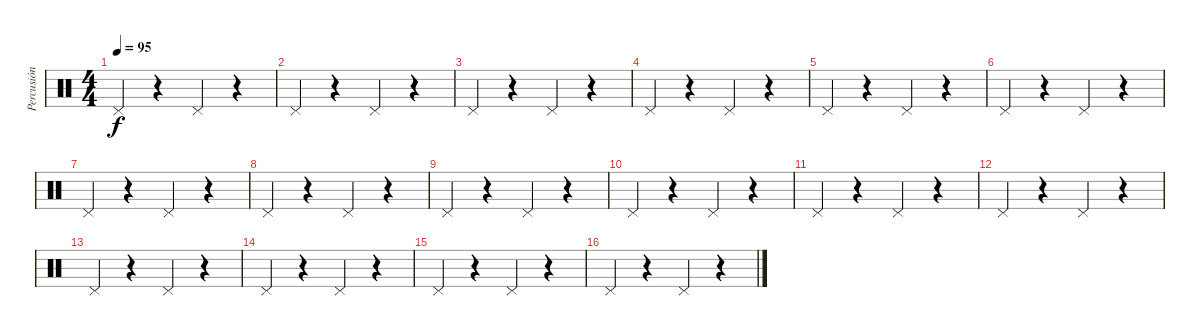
\track ("Percusión" "Percusión") {instrument percussion}
\staff {score}
\articulation defaults
\ts (4 4)
\tempo 95
\clef neutral
\ks c "Pedal Hi-Hat (hit)".4{dy f}
r.4 "Pedal Hi-Hat (hit)".4 r.4 |
"Pedal Hi-Hat (hit)".4 r.4 "Pedal Hi-Hat (hit)".4 r.4 |
"Pedal Hi-Hat (hit)".4 r.4 "Pedal Hi-Hat (hit)".4 r.4 |
"Pedal Hi-Hat (hit)".4 r.4 "Pedal Hi-Hat (hit)".4 r.4 |
"Pedal Hi-Hat (hit)".4 r.4 "Pedal Hi-Hat (hit)".4 r.4 |
"Pedal Hi-Hat (hit)".4 r.4 "Pedal Hi-Hat (hit)".4 r.4 |
"Pedal Hi-Hat (hit)".4 r.4 "Pedal Hi-Hat (hit)".4 r.4 |
"Pedal Hi-Hat (hit)".4 r.4 "Pedal Hi-Hat (hit)".4 r.4 |
"Pedal Hi-Hat (hit)".4 r.4 "Pedal Hi-Hat (hit)".4 r.4 |
"Pedal Hi-Hat (hit)".4 r.4 "Pedal Hi-Hat (hit)".4 r.4 |
"Pedal Hi-Hat (hit)".4 r.4 "Pedal Hi-Hat (hit)".4 r.4 |
"Pedal Hi-Hat (hit)".4 r.4 "Pedal Hi-Hat (hit)".4 r.4 |
"Pedal Hi-Hat (hit)".4 r.4 "Pedal Hi-Hat (hit)".4 r.4 |
"Pedal Hi-Hat (hit)".4 r.4 "Pedal Hi-Hat (hit)".4 r.4 |
"Pedal Hi-Hat (hit)".4 r.4 "Pedal Hi-Hat (hit)".4 r.4 |
"Pedal Hi-Hat (hit)".4 r.4 "Pedal Hi-Hat (hit)".4 r.4
